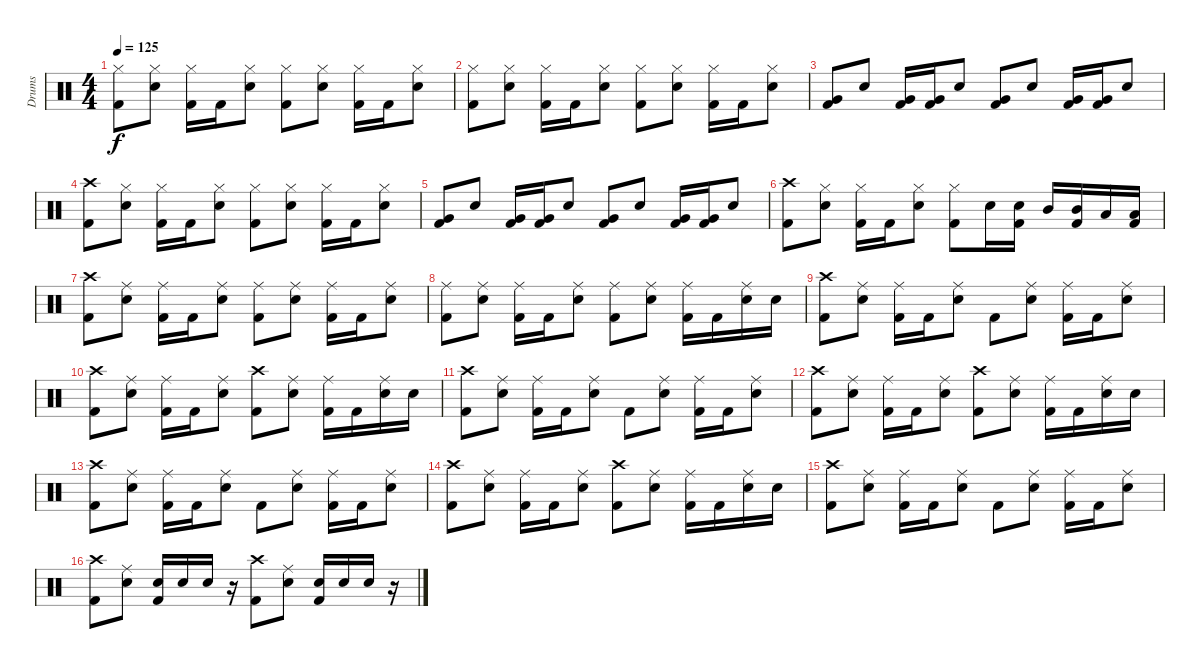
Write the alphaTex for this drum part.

\track ("Drums" "Drums") {instrument percussion}
\staff {score}
\articulation defaults
\ts (4 4)
\tempo 125
\clef neutral
\ks c
("Hi-Hat (closed)" "Kick (hit) 2").8{dy f} ("Hi-Hat (closed)" "Electric Snare (hit)").8 ("Hi-Hat (closed)" "Kick (hit) 2").16 "Kick (hit) 2".16 ("Hi-Hat (closed)" "Electric Snare (hit)").8 ("Hi-Hat (closed)" "Kick (hit) 2").8 ("Hi-Hat (closed)" "Electric Snare (hit)").8 ("Hi-Hat (closed)" "Kick (hit) 2").16 "Kick (hit) 2".16 ("Hi-Hat (closed)" "Electric Snare (hit)").8 |
("Hi-Hat (closed)" "Kick (hit) 2").8 ("Hi-Hat (closed)" "Electric Snare (hit)").8 ("Hi-Hat (closed)" "Kick (hit) 2").16 "Kick (hit) 2".16 ("Hi-Hat (closed)" "Electric Snare (hit)").8 ("Hi-Hat (closed)" "Kick (hit) 2").8 ("Hi-Hat (closed)" "Electric Snare (hit)").8 ("Hi-Hat (closed)" "Kick (hit) 2").16 "Kick (hit) 2".16 ("Hi-Hat (closed)" "Electric Snare (hit)").8 |
("Very Low Tom (hit)" "Kick (hit) 2").8 "Electric Snare (hit)".8 ("Very Low Tom (hit)" "Kick (hit) 2").16 ("Very Low Tom (hit)" "Kick (hit) 2").16 "Electric Snare (hit)".8 ("Very Low Tom (hit)" "Kick (hit) 2").8 "Electric Snare (hit)".8 ("Very Low Tom (hit)" "Kick (hit) 2").16 ("Very Low Tom (hit)" "Kick (hit) 2").16 "Electric Snare (hit)".8 |
("Crash high (hit)" "Kick (hit) 2").8 ("Hi-Hat (closed)" "Electric Snare (hit)").8 ("Hi-Hat (closed)" "Kick (hit) 2").16 "Kick (hit) 2".16 ("Hi-Hat (closed)" "Electric Snare (hit)").8 ("Hi-Hat (closed)" "Kick (hit) 2").8 ("Hi-Hat (closed)" "Electric Snare (hit)").8 ("Hi-Hat (closed)" "Kick (hit) 2").16 "Kick (hit) 2".16 ("Hi-Hat (closed)" "Electric Snare (hit)").8 |
("Very Low Tom (hit)" "Kick (hit) 2").8 "Electric Snare (hit)".8 ("Very Low Tom (hit)" "Kick (hit) 2").16 ("Very Low Tom (hit)" "Kick (hit) 2").16 "Electric Snare (hit)".8 ("Very Low Tom (hit)" "Kick (hit) 2").8 "Electric Snare (hit)".8 ("Very Low Tom (hit)" "Kick (hit) 2").16 ("Very Low Tom (hit)" "Kick (hit) 2").16 "Electric Snare (hit)".8 |
("Crash high (hit)" "Kick (hit) 2").8 ("Hi-Hat (closed)" "Electric Snare (hit)").8 ("Hi-Hat (closed)" "Kick (hit) 2").16 "Kick (hit) 2".16 ("Hi-Hat (closed)" "Electric Snare (hit)").8 ("Hi-Hat (closed)" "Kick (hit) 2").8 "Electric Snare (hit)".16 ("Electric Snare (hit)" "Kick (hit) 2").16 "Mid Tom (hit)".16 ("Mid Tom (hit)" "Kick (hit) 2").16 "Low Tom (hit)".16 ("Low Tom (hit)" "Kick (hit) 2").16 |
("Crash high (hit)" "Kick (hit) 2").8 ("Ride (middle)" "Electric Snare (hit)").8 ("Ride (middle)" "Kick (hit) 2").16 "Kick (hit) 2".16 ("Ride (middle)" "Electric Snare (hit)").8 ("Ride (middle)" "Kick (hit) 2").8 ("Ride (middle)" "Electric Snare (hit)").8 ("Ride (middle)" "Kick (hit) 2").16 "Kick (hit) 2".16 ("Ride (middle)" "Electric Snare (hit)").8 |
("Ride (middle)" "Kick (hit) 2").8 ("Ride (middle)" "Electric Snare (hit)").8 ("Ride (middle)" "Kick (hit) 2").16 "Kick (hit) 2".16 ("Ride (middle)" "Electric Snare (hit)").8 ("Ride (middle)" "Kick (hit) 2").8 ("Ride (middle)" "Electric Snare (hit)").8 ("Ride (middle)" "Kick (hit) 2").16 "Kick (hit) 2".16 ("Ride (middle)" "Electric Snare (hit)").16 "Electric Snare (hit)".16 |
("Crash high (hit)" "Kick (hit) 2").8 ("Ride (middle)" "Electric Snare (hit)").8 ("Ride (middle)" "Kick (hit) 2").16 "Kick (hit) 2".16 ("Ride (middle)" "Electric Snare (hit)").8 "Kick (hit) 2".8 ("Ride (middle)" "Electric Snare (hit)").8 ("Ride (middle)" "Kick (hit) 2").16 "Kick (hit) 2".16 ("Ride (middle)" "Electric Snare (hit)").8 |
("Crash high (hit)" "Kick (hit) 2").8 ("Ride (middle)" "Electric Snare (hit)").8 ("Ride (middle)" "Kick (hit) 2").16 "Kick (hit) 2".16 ("Ride (middle)" "Electric Snare (hit)").8 ("Crash high (hit)" "Kick (hit) 2").8 ("Ride (middle)" "Electric Snare (hit)").8 ("Ride (middle)" "Kick (hit) 2").16 "Kick (hit) 2".16 ("Ride (middle)" "Electric Snare (hit)").16 "Electric Snare (hit)".16 |
("Crash high (hit)" "Kick (hit) 2").8 ("Ride (middle)" "Electric Snare (hit)").8 ("Ride (middle)" "Kick (hit) 2").16 "Kick (hit) 2".16 ("Ride (middle)" "Electric Snare (hit)").8 "Kick (hit) 2".8 ("Ride (middle)" "Electric Snare (hit)").8 ("Ride (middle)" "Kick (hit) 2").16 "Kick (hit) 2".16 ("Ride (middle)" "Electric Snare (hit)").8 |
("Crash high (hit)" "Kick (hit) 2").8 ("Ride (middle)" "Electric Snare (hit)").8 ("Ride (middle)" "Kick (hit) 2").16 "Kick (hit) 2".16 ("Ride (middle)" "Electric Snare (hit)").8 ("Crash high (hit)" "Kick (hit) 2").8 ("Ride (middle)" "Electric Snare (hit)").8 ("Ride (middle)" "Kick (hit) 2").16 "Kick (hit) 2".16 ("Ride (middle)" "Electric Snare (hit)").16 "Electric Snare (hit)".16 |
("Crash high (hit)" "Kick (hit) 2").8 ("Ride (middle)" "Electric Snare (hit)").8 ("Ride (middle)" "Kick (hit) 2").16 "Kick (hit) 2".16 ("Ride (middle)" "Electric Snare (hit)").8 "Kick (hit) 2".8 ("Ride (middle)" "Electric Snare (hit)").8 ("Ride (middle)" "Kick (hit) 2").16 "Kick (hit) 2".16 ("Ride (middle)" "Electric Snare (hit)").8 |
("Crash high (hit)" "Kick (hit) 2").8 ("Ride (middle)" "Electric Snare (hit)").8 ("Ride (middle)" "Kick (hit) 2").16 "Kick (hit) 2".16 ("Ride (middle)" "Electric Snare (hit)").8 ("Crash high (hit)" "Kick (hit) 2").8 ("Ride (middle)" "Electric Snare (hit)").8 ("Ride (middle)" "Kick (hit) 2").16 "Kick (hit) 2".16 ("Ride (middle)" "Electric Snare (hit)").16 "Electric Snare (hit)".16 |
("Crash high (hit)" "Kick (hit) 2").8 ("Ride (middle)" "Electric Snare (hit)").8 ("Ride (middle)" "Kick (hit) 2").16 "Kick (hit) 2".16 ("Ride (middle)" "Electric Snare (hit)").8 "Kick (hit) 2".8 ("Ride (middle)" "Electric Snare (hit)").8 ("Ride (middle)" "Kick (hit) 2").16 "Kick (hit) 2".16 ("Ride (middle)" "Electric Snare (hit)").8 |
("Crash high (hit)" "Kick (hit) 2").8 ("Ride (middle)" "Electric Snare (hit)").8 ("Electric Snare (hit)" "Kick (hit) 2").16 "Electric Snare (hit)".16 "Electric Snare (hit)".16 r.16 ("Crash high (hit)" "Kick (hit) 2").8 ("Ride (middle)" "Electric Snare (hit)").8 ("Electric Snare (hit)" "Kick (hit) 2").16 "Electric Snare (hit)".16 "Electric Snare (hit)".16 r.16
